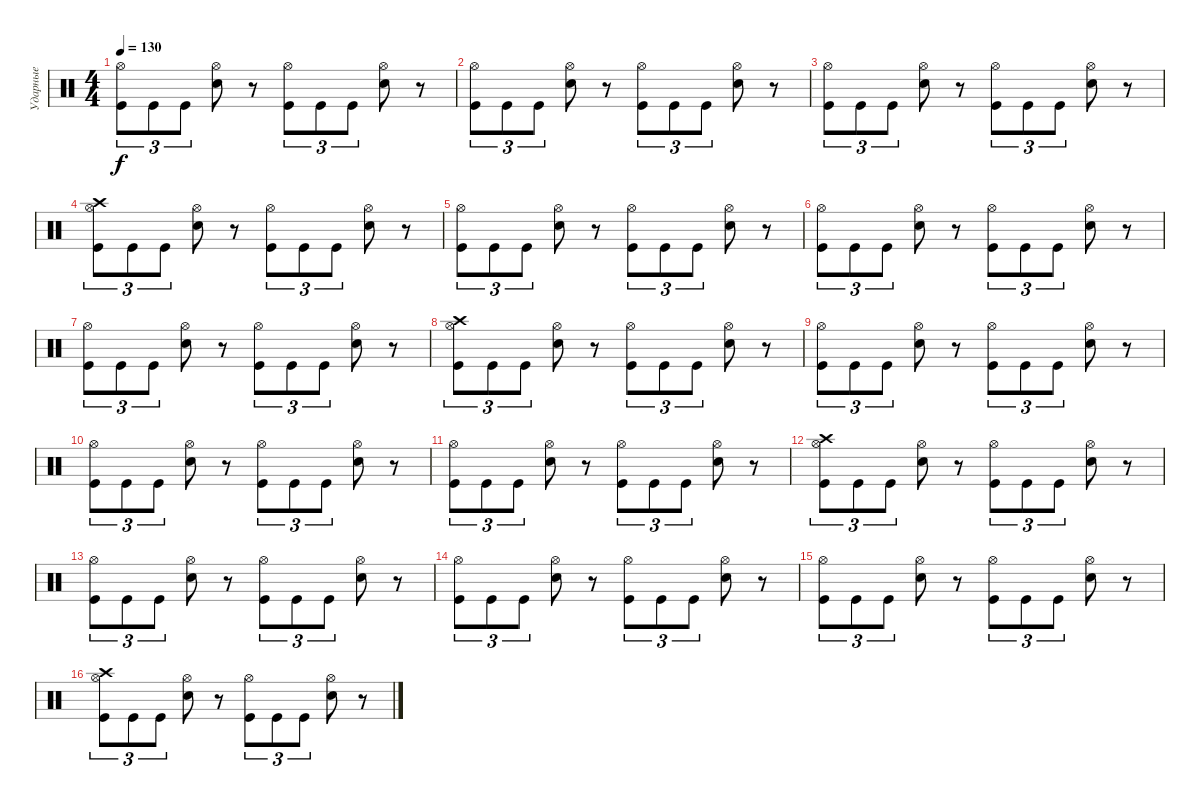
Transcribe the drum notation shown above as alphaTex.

\track ("Ударные" "Ударные") {instrument percussion}
\staff {score}
\articulation defaults
\ts (4 4)
\tempo 130
\clef neutral
\ks c
("Hi-Hat (open)" "Kick (hit)").8{tu (3 2) dy f} "Kick (hit)".8{tu (3 2)} "Kick (hit)".8{tu (3 2)} ("Hi-Hat (open)" "Electric Snare (hit)").8 r.8 ("Hi-Hat (open)" "Kick (hit)").8{tu (3 2)} "Kick (hit)".8{tu (3 2)} "Kick (hit)".8{tu (3 2)} ("Hi-Hat (open)" "Electric Snare (hit)").8 r.8 |
("Hi-Hat (open)" "Kick (hit)").8{tu (3 2)} "Kick (hit)".8{tu (3 2)} "Kick (hit)".8{tu (3 2)} ("Hi-Hat (open)" "Electric Snare (hit)").8 r.8 ("Hi-Hat (open)" "Kick (hit)").8{tu (3 2)} "Kick (hit)".8{tu (3 2)} "Kick (hit)".8{tu (3 2)} ("Hi-Hat (open)" "Electric Snare (hit)").8 r.8 |
("Hi-Hat (open)" "Kick (hit)").8{tu (3 2)} "Kick (hit)".8{tu (3 2)} "Kick (hit)".8{tu (3 2)} ("Hi-Hat (open)" "Electric Snare (hit)").8 r.8 ("Hi-Hat (open)" "Kick (hit)").8{tu (3 2)} "Kick (hit)".8{tu (3 2)} "Kick (hit)".8{tu (3 2)} ("Hi-Hat (open)" "Electric Snare (hit)").8 r.8 |
("Crash high (hit)" "Hi-Hat (open)" "Kick (hit)").8{tu (3 2)} "Kick (hit)".8{tu (3 2)} "Kick (hit)".8{tu (3 2)} ("Hi-Hat (open)" "Electric Snare (hit)").8 r.8 ("Hi-Hat (open)" "Kick (hit)").8{tu (3 2)} "Kick (hit)".8{tu (3 2)} "Kick (hit)".8{tu (3 2)} ("Hi-Hat (open)" "Electric Snare (hit)").8 r.8 |
("Hi-Hat (open)" "Kick (hit)").8{tu (3 2)} "Kick (hit)".8{tu (3 2)} "Kick (hit)".8{tu (3 2)} ("Hi-Hat (open)" "Electric Snare (hit)").8 r.8 ("Hi-Hat (open)" "Kick (hit)").8{tu (3 2)} "Kick (hit)".8{tu (3 2)} "Kick (hit)".8{tu (3 2)} ("Hi-Hat (open)" "Electric Snare (hit)").8 r.8 |
("Hi-Hat (open)" "Kick (hit)").8{tu (3 2)} "Kick (hit)".8{tu (3 2)} "Kick (hit)".8{tu (3 2)} ("Hi-Hat (open)" "Electric Snare (hit)").8 r.8 ("Hi-Hat (open)" "Kick (hit)").8{tu (3 2)} "Kick (hit)".8{tu (3 2)} "Kick (hit)".8{tu (3 2)} ("Hi-Hat (open)" "Electric Snare (hit)").8 r.8 |
("Hi-Hat (open)" "Kick (hit)").8{tu (3 2)} "Kick (hit)".8{tu (3 2)} "Kick (hit)".8{tu (3 2)} ("Hi-Hat (open)" "Electric Snare (hit)").8 r.8 ("Hi-Hat (open)" "Kick (hit)").8{tu (3 2)} "Kick (hit)".8{tu (3 2)} "Kick (hit)".8{tu (3 2)} ("Hi-Hat (open)" "Electric Snare (hit)").8 r.8 |
("Crash high (hit)" "Hi-Hat (open)" "Kick (hit)").8{tu (3 2)} "Kick (hit)".8{tu (3 2)} "Kick (hit)".8{tu (3 2)} ("Hi-Hat (open)" "Electric Snare (hit)").8 r.8 ("Hi-Hat (open)" "Kick (hit)").8{tu (3 2)} "Kick (hit)".8{tu (3 2)} "Kick (hit)".8{tu (3 2)} ("Hi-Hat (open)" "Electric Snare (hit)").8 r.8 |
("Hi-Hat (open)" "Kick (hit)").8{tu (3 2)} "Kick (hit)".8{tu (3 2)} "Kick (hit)".8{tu (3 2)} ("Hi-Hat (open)" "Electric Snare (hit)").8 r.8 ("Hi-Hat (open)" "Kick (hit)").8{tu (3 2)} "Kick (hit)".8{tu (3 2)} "Kick (hit)".8{tu (3 2)} ("Hi-Hat (open)" "Electric Snare (hit)").8 r.8 |
("Hi-Hat (open)" "Kick (hit)").8{tu (3 2)} "Kick (hit)".8{tu (3 2)} "Kick (hit)".8{tu (3 2)} ("Hi-Hat (open)" "Electric Snare (hit)").8 r.8 ("Hi-Hat (open)" "Kick (hit)").8{tu (3 2)} "Kick (hit)".8{tu (3 2)} "Kick (hit)".8{tu (3 2)} ("Hi-Hat (open)" "Electric Snare (hit)").8 r.8 |
("Hi-Hat (open)" "Kick (hit)").8{tu (3 2)} "Kick (hit)".8{tu (3 2)} "Kick (hit)".8{tu (3 2)} ("Hi-Hat (open)" "Electric Snare (hit)").8 r.8 ("Hi-Hat (open)" "Kick (hit)").8{tu (3 2)} "Kick (hit)".8{tu (3 2)} "Kick (hit)".8{tu (3 2)} ("Hi-Hat (open)" "Electric Snare (hit)").8 r.8 |
("Crash high (hit)" "Hi-Hat (open)" "Kick (hit)").8{tu (3 2)} "Kick (hit)".8{tu (3 2)} "Kick (hit)".8{tu (3 2)} ("Hi-Hat (open)" "Electric Snare (hit)").8 r.8 ("Hi-Hat (open)" "Kick (hit)").8{tu (3 2)} "Kick (hit)".8{tu (3 2)} "Kick (hit)".8{tu (3 2)} ("Hi-Hat (open)" "Electric Snare (hit)").8 r.8 |
("Hi-Hat (open)" "Kick (hit)").8{tu (3 2)} "Kick (hit)".8{tu (3 2)} "Kick (hit)".8{tu (3 2)} ("Hi-Hat (open)" "Electric Snare (hit)").8 r.8 ("Hi-Hat (open)" "Kick (hit)").8{tu (3 2)} "Kick (hit)".8{tu (3 2)} "Kick (hit)".8{tu (3 2)} ("Hi-Hat (open)" "Electric Snare (hit)").8 r.8 |
("Hi-Hat (open)" "Kick (hit)").8{tu (3 2)} "Kick (hit)".8{tu (3 2)} "Kick (hit)".8{tu (3 2)} ("Hi-Hat (open)" "Electric Snare (hit)").8 r.8 ("Hi-Hat (open)" "Kick (hit)").8{tu (3 2)} "Kick (hit)".8{tu (3 2)} "Kick (hit)".8{tu (3 2)} ("Hi-Hat (open)" "Electric Snare (hit)").8 r.8 |
("Hi-Hat (open)" "Kick (hit)").8{tu (3 2)} "Kick (hit)".8{tu (3 2)} "Kick (hit)".8{tu (3 2)} ("Hi-Hat (open)" "Electric Snare (hit)").8 r.8 ("Hi-Hat (open)" "Kick (hit)").8{tu (3 2)} "Kick (hit)".8{tu (3 2)} "Kick (hit)".8{tu (3 2)} ("Hi-Hat (open)" "Electric Snare (hit)").8 r.8 |
("Crash high (hit)" "Hi-Hat (open)" "Kick (hit)").8{tu (3 2)} "Kick (hit)".8{tu (3 2)} "Kick (hit)".8{tu (3 2)} ("Hi-Hat (open)" "Electric Snare (hit)").8 r.8 ("Hi-Hat (open)" "Kick (hit)").8{tu (3 2)} "Kick (hit)".8{tu (3 2)} "Kick (hit)".8{tu (3 2)} ("Hi-Hat (open)" "Electric Snare (hit)").8 r.8
